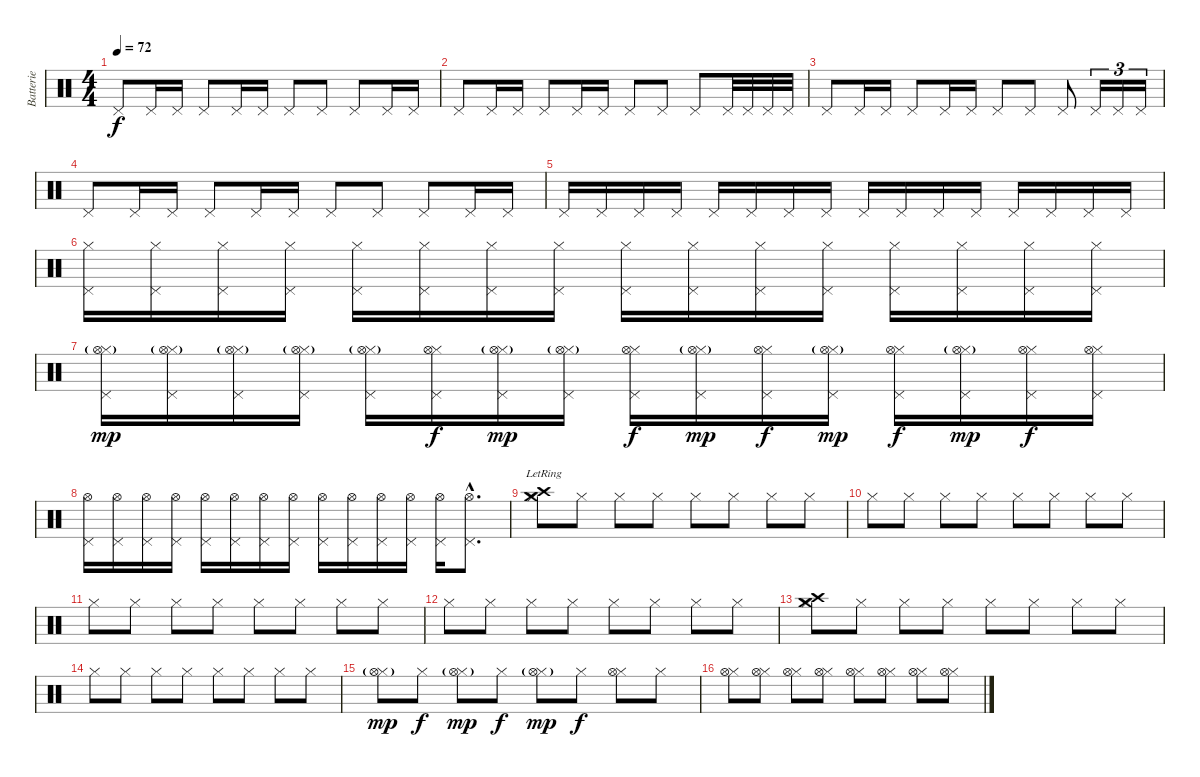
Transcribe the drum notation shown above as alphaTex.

\track ("Batterie" "Batterie") {instrument percussion}
\staff {score}
\articulation defaults
\ts (4 4)
\tempo 72
\clef neutral
\ks c "Pedal Hi-Hat (hit)".8{dy f} "Pedal Hi-Hat (hit)".16 "Pedal Hi-Hat (hit)".16 "Pedal Hi-Hat (hit)".8 "Pedal Hi-Hat (hit)".16 "Pedal Hi-Hat (hit)".16 "Pedal Hi-Hat (hit)".8 "Pedal Hi-Hat (hit)".8 "Pedal Hi-Hat (hit)".8 "Pedal Hi-Hat (hit)".16 "Pedal Hi-Hat (hit)".16
|
"Pedal Hi-Hat (hit)".8 "Pedal Hi-Hat (hit)".16 "Pedal Hi-Hat (hit)".16 "Pedal Hi-Hat (hit)".8 "Pedal Hi-Hat (hit)".16 "Pedal Hi-Hat (hit)".16 "Pedal Hi-Hat (hit)".8 "Pedal Hi-Hat (hit)".8 "Pedal Hi-Hat (hit)".8 "Pedal Hi-Hat (hit)".32 "Pedal Hi-Hat (hit)".32 "Pedal Hi-Hat (hit)".32 "Pedal Hi-Hat (hit)".32 |
"Pedal Hi-Hat (hit)".8 "Pedal Hi-Hat (hit)".16 "Pedal Hi-Hat (hit)".16 "Pedal Hi-Hat (hit)".8 "Pedal Hi-Hat (hit)".16 "Pedal Hi-Hat (hit)".16 "Pedal Hi-Hat (hit)".8 "Pedal Hi-Hat (hit)".8 "Pedal Hi-Hat (hit)".8 "Pedal Hi-Hat (hit)".16{tu (3 2)} "Pedal Hi-Hat (hit)".16{tu (3 2)} "Pedal Hi-Hat (hit)".16{tu (3 2)} |
"Pedal Hi-Hat (hit)".8 "Pedal Hi-Hat (hit)".16 "Pedal Hi-Hat (hit)".16 "Pedal Hi-Hat (hit)".8 "Pedal Hi-Hat (hit)".16 "Pedal Hi-Hat (hit)".16 "Pedal Hi-Hat (hit)".8 "Pedal Hi-Hat (hit)".8 "Pedal Hi-Hat (hit)".8 "Pedal Hi-Hat (hit)".16 "Pedal Hi-Hat (hit)".16 |
"Pedal Hi-Hat (hit)".16 "Pedal Hi-Hat (hit)".16 "Pedal Hi-Hat (hit)".16 "Pedal Hi-Hat (hit)".16 "Pedal Hi-Hat (hit)".16 "Pedal Hi-Hat (hit)".16 "Pedal Hi-Hat (hit)".16 "Pedal Hi-Hat (hit)".16 "Pedal Hi-Hat (hit)".16 "Pedal Hi-Hat (hit)".16 "Pedal Hi-Hat (hit)".16 "Pedal Hi-Hat (hit)".16 "Pedal Hi-Hat (hit)".16 "Pedal Hi-Hat (hit)".16 "Pedal Hi-Hat (hit)".16 "Pedal Hi-Hat (hit)".16 |
("Pedal Hi-Hat (hit)" "Hi-Hat (closed)").16 ("Pedal Hi-Hat (hit)" "Hi-Hat (closed)").16 ("Pedal Hi-Hat (hit)" "Hi-Hat (closed)").16 ("Pedal Hi-Hat (hit)" "Hi-Hat (closed)").16 ("Pedal Hi-Hat (hit)" "Hi-Hat (closed)").16 ("Pedal Hi-Hat (hit)" "Hi-Hat (closed)").16 ("Pedal Hi-Hat (hit)" "Hi-Hat (closed)").16 ("Pedal Hi-Hat (hit)" "Hi-Hat (closed)").16 ("Pedal Hi-Hat (hit)" "Hi-Hat (closed)").16 ("Pedal Hi-Hat (hit)" "Hi-Hat (closed)").16 ("Pedal Hi-Hat (hit)" "Hi-Hat (closed)").16 ("Pedal Hi-Hat (hit)" "Hi-Hat (closed)").16 ("Pedal Hi-Hat (hit)" "Hi-Hat (closed)").16 ("Pedal Hi-Hat (hit)" "Hi-Hat (closed)").16 ("Pedal Hi-Hat (hit)" "Hi-Hat (closed)").16 ("Pedal Hi-Hat (hit)" "Hi-Hat (closed)").16 |
("Pedal Hi-Hat (hit)" "Hi-Hat (closed)" "Hi-Hat (open)"{g}).16{dy mp} ("Pedal Hi-Hat (hit)" "Hi-Hat (closed)" "Hi-Hat (open)"{g}).16 ("Pedal Hi-Hat (hit)" "Hi-Hat (closed)" "Hi-Hat (open)"{g}).16 ("Pedal Hi-Hat (hit)" "Hi-Hat (closed)" "Hi-Hat (open)"{g}).16 ("Pedal Hi-Hat (hit)" "Hi-Hat (closed)" "Hi-Hat (open)"{g}).16 ("Pedal Hi-Hat (hit)" "Hi-Hat (closed)" "Hi-Hat (open)").16{dy f} ("Pedal Hi-Hat (hit)" "Hi-Hat (closed)" "Hi-Hat (open)"{g}).16{dy mp} ("Pedal Hi-Hat (hit)" "Hi-Hat (closed)" "Hi-Hat (open)"{g}).16 ("Pedal Hi-Hat (hit)" "Hi-Hat (closed)" "Hi-Hat (open)").16{dy f} ("Pedal Hi-Hat (hit)" "Hi-Hat (closed)" "Hi-Hat (open)"{g}).16{dy mp} ("Pedal Hi-Hat (hit)" "Hi-Hat (closed)" "Hi-Hat (open)").16{dy f} ("Pedal Hi-Hat (hit)" "Hi-Hat (closed)" "Hi-Hat (open)"{g}).16{dy mp} ("Pedal Hi-Hat (hit)" "Hi-Hat (closed)" "Hi-Hat (open)").16{dy f} ("Pedal Hi-Hat (hit)" "Hi-Hat (closed)" "Hi-Hat (open)"{g}).16{dy mp} ("Pedal Hi-Hat (hit)" "Hi-Hat (closed)" "Hi-Hat (open)").16{dy f} ("Pedal Hi-Hat (hit)" "Hi-Hat (closed)" "Hi-Hat (open)").16 |
("Pedal Hi-Hat (hit)" "Hi-Hat (open)").16 ("Pedal Hi-Hat (hit)" "Hi-Hat (open)").16 ("Pedal Hi-Hat (hit)" "Hi-Hat (open)").16 ("Pedal Hi-Hat (hit)" "Hi-Hat (open)").16 ("Pedal Hi-Hat (hit)" "Hi-Hat (open)").16 ("Pedal Hi-Hat (hit)" "Hi-Hat (open)").16 ("Pedal Hi-Hat (hit)" "Hi-Hat (open)").16 ("Pedal Hi-Hat (hit)" "Hi-Hat (open)").16 ("Pedal Hi-Hat (hit)" "Hi-Hat (open)").16 ("Pedal Hi-Hat (hit)" "Hi-Hat (open)").16 ("Pedal Hi-Hat (hit)" "Hi-Hat (open)").16 ("Pedal Hi-Hat (hit)" "Hi-Hat (open)").16 ("Pedal Hi-Hat (hit)" "Hi-Hat (open)").16 ("Pedal Hi-Hat (hit)"{hac} "Hi-Hat (open)"{hac}).8{d} |
("Crash high (hit)"{lr} "Hi-Hat (closed)" "Crash medium (hit)").8 "Hi-Hat (closed)".8 "Hi-Hat (closed)".8 "Hi-Hat (closed)".8 "Hi-Hat (closed)".8 "Hi-Hat (closed)".8 "Hi-Hat (closed)".8 "Hi-Hat (closed)".8 |
"Hi-Hat (closed)".8 "Hi-Hat (closed)".8 "Hi-Hat (closed)".8 "Hi-Hat (closed)".8 "Hi-Hat (closed)".8 "Hi-Hat (closed)".8 "Hi-Hat (closed)".8 "Hi-Hat (closed)".8 |
"Hi-Hat (closed)".8 "Hi-Hat (closed)".8 "Hi-Hat (closed)".8 "Hi-Hat (closed)".8 "Hi-Hat (closed)".8 "Hi-Hat (closed)".8 "Hi-Hat (closed)".8 "Hi-Hat (closed)".8 |
"Hi-Hat (closed)".8 "Hi-Hat (closed)".8 "Hi-Hat (closed)".8 "Hi-Hat (closed)".8 "Hi-Hat (closed)".8 "Hi-Hat (closed)".8 "Hi-Hat (closed)".8 "Hi-Hat (closed)".8 |
("Crash high (hit)" "Hi-Hat (closed)" "Crash medium (hit)").8 "Hi-Hat (closed)".8 "Hi-Hat (closed)".8 "Hi-Hat (closed)".8 "Hi-Hat (closed)".8 "Hi-Hat (closed)".8 "Hi-Hat (closed)".8 "Hi-Hat (closed)".8 |
"Hi-Hat (closed)".8 "Hi-Hat (closed)".8 "Hi-Hat (closed)".8 "Hi-Hat (closed)".8 "Hi-Hat (closed)".8 "Hi-Hat (closed)".8 "Hi-Hat (closed)".8 "Hi-Hat (closed)".8 |
("Hi-Hat (closed)" "Hi-Hat (open)"{g}).8{dy mp} "Hi-Hat (closed)".8{dy f} ("Hi-Hat (closed)" "Hi-Hat (open)"{g}).8{dy mp} "Hi-Hat (closed)".8{dy f} ("Hi-Hat (closed)" "Hi-Hat (open)"{g}).8{dy mp} "Hi-Hat (closed)".8{dy f} ("Hi-Hat (closed)" "Hi-Hat (open)").8 "Hi-Hat (closed)".8 |
("Hi-Hat (closed)" "Hi-Hat (open)").8 ("Hi-Hat (closed)" "Hi-Hat (open)").8 ("Hi-Hat (closed)" "Hi-Hat (open)").8 ("Hi-Hat (closed)" "Hi-Hat (open)").8 ("Hi-Hat (closed)" "Hi-Hat (open)").8 ("Hi-Hat (closed)" "Hi-Hat (open)").8 ("Hi-Hat (closed)" "Hi-Hat (open)").8 ("Hi-Hat (closed)" "Hi-Hat (open)").8
